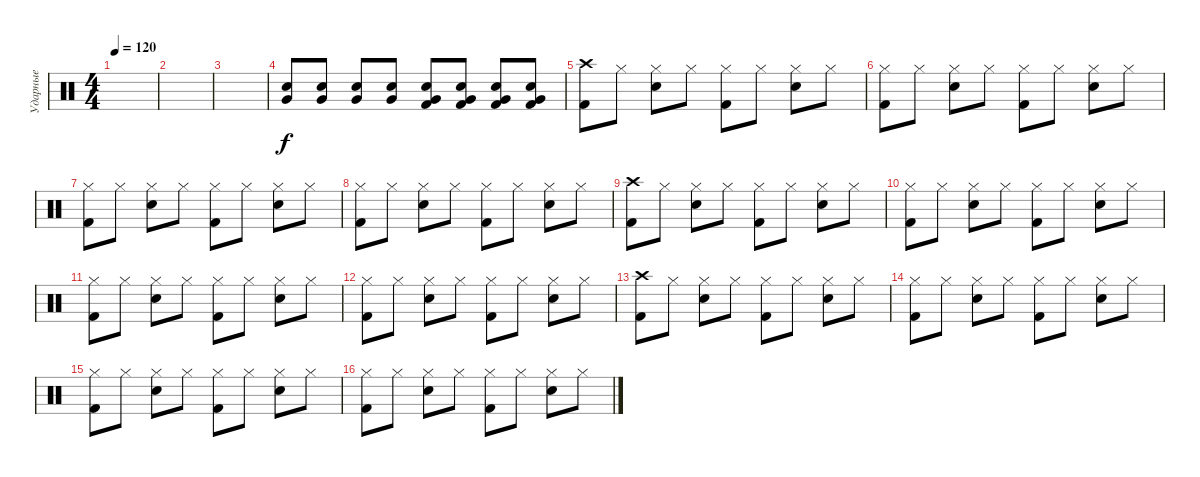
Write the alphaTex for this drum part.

\track ("Ударные" "Ударные") {instrument percussion}
\staff {score}
\articulation defaults
\ts (4 4)
\tempo 120
\clef neutral
\ks c
|
|
|
("Snare (hit) 2" "Very Low Tom (hit)").8 ("Snare (hit) 2" "Very Low Tom (hit)").8 ("Snare (hit) 2" "Very Low Tom (hit)").8 ("Snare (hit) 2" "Very Low Tom (hit)").8 ("Snare (hit) 2" "Very Low Tom (hit)" "Kick (hit) 2").8 ("Snare (hit) 2" "Very Low Tom (hit)" "Kick (hit) 2").8 ("Snare (hit) 2" "Very Low Tom (hit)" "Kick (hit) 2").8 ("Snare (hit) 2" "Very Low Tom (hit)" "Kick (hit) 2").8 |
("Crash high (hit)" "Kick (hit) 2").8 "Hi-Hat (closed)".8 ("Hi-Hat (closed)" "Electric Snare (hit)").8 "Hi-Hat (closed)".8 ("Hi-Hat (closed)" "Kick (hit) 2").8 "Hi-Hat (closed)".8 ("Hi-Hat (closed)" "Electric Snare (hit)").8 "Hi-Hat (closed)".8 |
("Hi-Hat (closed)" "Kick (hit) 2").8 "Hi-Hat (closed)".8 ("Hi-Hat (closed)" "Electric Snare (hit)").8 "Hi-Hat (closed)".8 ("Hi-Hat (closed)" "Kick (hit) 2").8 "Hi-Hat (closed)".8 ("Hi-Hat (closed)" "Electric Snare (hit)").8 "Hi-Hat (closed)".8 |
("Hi-Hat (closed)" "Kick (hit) 2").8 "Hi-Hat (closed)".8 ("Hi-Hat (closed)" "Electric Snare (hit)").8 "Hi-Hat (closed)".8 ("Hi-Hat (closed)" "Kick (hit) 2").8 "Hi-Hat (closed)".8 ("Hi-Hat (closed)" "Electric Snare (hit)").8 "Hi-Hat (closed)".8 |
("Hi-Hat (closed)" "Kick (hit) 2").8 "Hi-Hat (closed)".8 ("Hi-Hat (closed)" "Electric Snare (hit)").8 "Hi-Hat (closed)".8 ("Hi-Hat (closed)" "Kick (hit) 2").8 "Hi-Hat (closed)".8 ("Hi-Hat (closed)" "Electric Snare (hit)").8 "Hi-Hat (closed)".8 |
("Crash high (hit)" "Kick (hit) 2").8 "Hi-Hat (closed)".8 ("Hi-Hat (closed)" "Electric Snare (hit)").8 "Hi-Hat (closed)".8 ("Hi-Hat (closed)" "Kick (hit) 2").8 "Hi-Hat (closed)".8 ("Hi-Hat (closed)" "Electric Snare (hit)").8 "Hi-Hat (closed)".8 |
("Hi-Hat (closed)" "Kick (hit) 2").8 "Hi-Hat (closed)".8 ("Hi-Hat (closed)" "Electric Snare (hit)").8 "Hi-Hat (closed)".8 ("Hi-Hat (closed)" "Kick (hit) 2").8 "Hi-Hat (closed)".8 ("Hi-Hat (closed)" "Electric Snare (hit)").8 "Hi-Hat (closed)".8 |
("Hi-Hat (closed)" "Kick (hit) 2").8 "Hi-Hat (closed)".8 ("Hi-Hat (closed)" "Electric Snare (hit)").8 "Hi-Hat (closed)".8 ("Hi-Hat (closed)" "Kick (hit) 2").8 "Hi-Hat (closed)".8 ("Hi-Hat (closed)" "Electric Snare (hit)").8 "Hi-Hat (closed)".8 |
("Hi-Hat (closed)" "Kick (hit) 2").8 "Hi-Hat (closed)".8 ("Hi-Hat (closed)" "Electric Snare (hit)").8 "Hi-Hat (closed)".8 ("Hi-Hat (closed)" "Kick (hit) 2").8 "Hi-Hat (closed)".8 ("Hi-Hat (closed)" "Electric Snare (hit)").8 "Hi-Hat (closed)".8 |
("Crash high (hit)" "Kick (hit) 2").8 "Hi-Hat (closed)".8 ("Hi-Hat (closed)" "Electric Snare (hit)").8 "Hi-Hat (closed)".8 ("Hi-Hat (closed)" "Kick (hit) 2").8 "Hi-Hat (closed)".8 ("Hi-Hat (closed)" "Electric Snare (hit)").8 "Hi-Hat (closed)".8 |
("Hi-Hat (closed)" "Kick (hit) 2").8 "Hi-Hat (closed)".8 ("Hi-Hat (closed)" "Electric Snare (hit)").8 "Hi-Hat (closed)".8 ("Hi-Hat (closed)" "Kick (hit) 2").8 "Hi-Hat (closed)".8 ("Hi-Hat (closed)" "Electric Snare (hit)").8 "Hi-Hat (closed)".8 |
("Hi-Hat (closed)" "Kick (hit) 2").8 "Hi-Hat (closed)".8 ("Hi-Hat (closed)" "Electric Snare (hit)").8 "Hi-Hat (closed)".8 ("Hi-Hat (closed)" "Kick (hit) 2").8 "Hi-Hat (closed)".8 ("Hi-Hat (closed)" "Electric Snare (hit)").8 "Hi-Hat (closed)".8 |
("Hi-Hat (closed)" "Kick (hit) 2").8 "Hi-Hat (closed)".8 ("Hi-Hat (closed)" "Electric Snare (hit)").8 "Hi-Hat (closed)".8 ("Hi-Hat (closed)" "Kick (hit) 2").8 "Hi-Hat (closed)".8 ("Hi-Hat (closed)" "Electric Snare (hit)").8 "Hi-Hat (closed)".8
